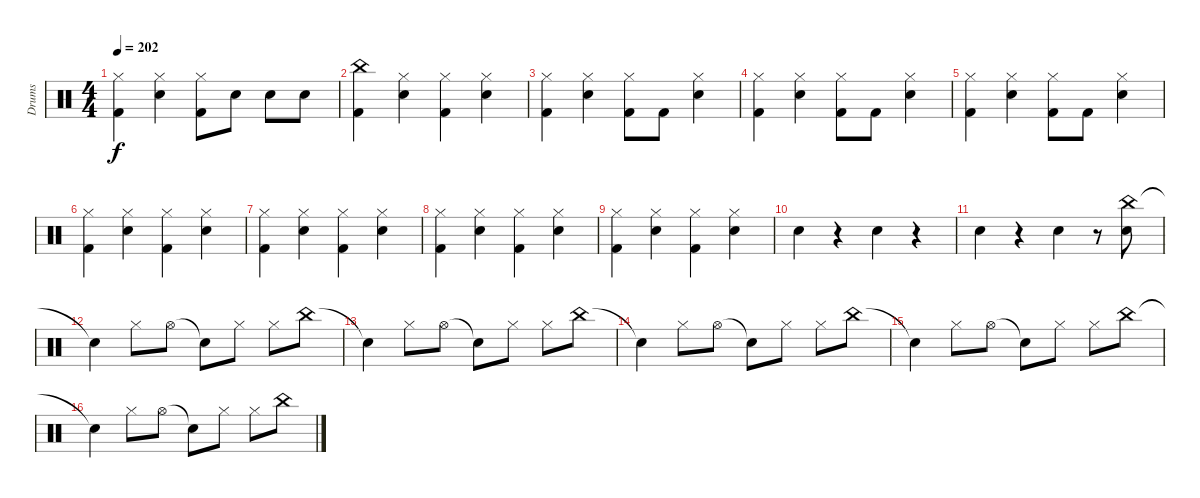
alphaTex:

\track ("Drums" "Drums") {instrument percussion}
\staff {score}
\articulation defaults
\ts (4 4)
\tempo 202
\clef neutral
\ks c
("Hi-Hat (closed)" "Kick (hit) 2").4{dy f} ("Hi-Hat (closed)" "Snare (hit) 2").4 ("Hi-Hat (closed)" "Kick (hit) 2").8 "Snare (hit) 2".8 "Snare (hit) 2".8 "Snare (hit) 2".8 |
("China (hit)" "Kick (hit) 2").4 ("Hi-Hat (closed)" "Snare (hit) 2").4 ("Hi-Hat (closed)" "Kick (hit) 2").4 ("Hi-Hat (closed)" "Snare (hit) 2").4 |
("Hi-Hat (closed)" "Kick (hit) 2").4 ("Hi-Hat (closed)" "Snare (hit) 2").4 ("Hi-Hat (closed)" "Kick (hit) 2").8 "Kick (hit) 2".8 ("Hi-Hat (closed)" "Snare (hit) 2").4 |
("Hi-Hat (closed)" "Kick (hit) 2").4 ("Hi-Hat (closed)" "Snare (hit) 2").4 ("Hi-Hat (closed)" "Kick (hit) 2").8 "Kick (hit) 2".8 ("Hi-Hat (closed)" "Snare (hit) 2").4 |
("Hi-Hat (closed)" "Kick (hit) 2").4 ("Hi-Hat (closed)" "Snare (hit) 2").4 ("Hi-Hat (closed)" "Kick (hit) 2").8 "Kick (hit) 2".8 ("Hi-Hat (closed)" "Snare (hit) 2").4 |
("Hi-Hat (closed)" "Kick (hit) 2").4 ("Hi-Hat (closed)" "Snare (hit) 2").4 ("Hi-Hat (closed)" "Kick (hit) 2").4 ("Hi-Hat (closed)" "Snare (hit) 2").4 |
("Hi-Hat (closed)" "Kick (hit) 2").4 ("Hi-Hat (closed)" "Snare (hit) 2").4 ("Hi-Hat (closed)" "Kick (hit) 2").4 ("Hi-Hat (closed)" "Snare (hit) 2").4 |
("Hi-Hat (closed)" "Kick (hit) 2").4 ("Hi-Hat (closed)" "Snare (hit) 2").4 ("Hi-Hat (closed)" "Kick (hit) 2").4 ("Hi-Hat (closed)" "Snare (hit) 2").4 |
("Hi-Hat (closed)" "Kick (hit) 2").4 ("Hi-Hat (closed)" "Snare (hit) 2").4 ("Hi-Hat (closed)" "Kick (hit) 2").4 ("Hi-Hat (closed)" "Snare (hit) 2").4 |
"Snare (hit) 2".4 r.4 "Snare (hit) 2".4 r.4 |
"Snare (hit) 2".4 r.4 "Snare (hit) 2".4 r.8 ("China (hit)" "Snare (hit) 2").8 |
"Snare (hit)"{t}.4 "Hi-Hat (closed)".8 "Hi-Hat (open)".8 "Snare (hit)"{t}.8 "Hi-Hat (closed)".8 "Hi-Hat (closed)".8 "China (hit)".8 |
"Snare (hit)"{t}.4 "Hi-Hat (closed)".8 "Hi-Hat (open)".8 "Snare (hit)"{t}.8 "Hi-Hat (closed)".8 "Hi-Hat (closed)".8 "China (hit)".8 |
"Snare (hit)"{t}.4 "Hi-Hat (closed)".8 "Hi-Hat (open)".8 "Snare (hit)"{t}.8 "Hi-Hat (closed)".8 "Hi-Hat (closed)".8 "China (hit)".8 |
"Snare (hit)"{t}.4 "Hi-Hat (closed)".8 "Hi-Hat (open)".8 "Snare (hit)"{t}.8 "Hi-Hat (closed)".8 "Hi-Hat (closed)".8 "China (hit)".8 |
"Snare (hit)"{t}.4 "Hi-Hat (closed)".8 "Hi-Hat (open)".8 "Snare (hit)"{t}.8 "Hi-Hat (closed)".8 "Hi-Hat (closed)".8 "China (hit)".8
